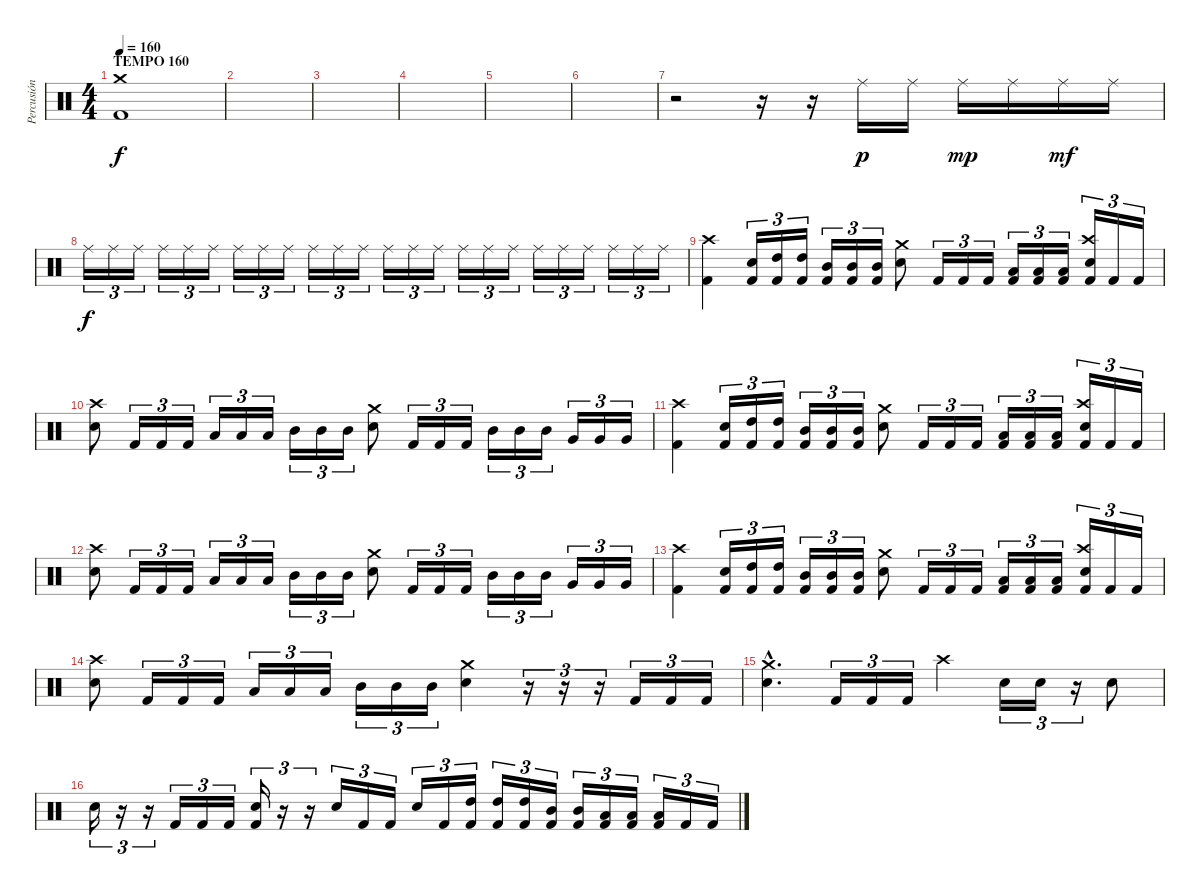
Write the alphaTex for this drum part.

\track ("Percusión" "Percusión") {instrument percussion}
\staff {score}
\articulation defaults
\ts (4 4)
\section ("" "TEMPO 160")
\tempo 160
\clef neutral
\ks c
("Crash medium (hit)" "Kick (hit) 2").1{dy f} |
|
|
|
|
|
r.2 r.16 r.16 "Ride (middle)".16{dy p} "Ride (middle)".16 "Ride (middle)".16{dy mp} "Ride (middle)".16 "Ride (middle)".16{dy mf} "Ride (middle)".16 |
"Ride (middle)".16{tu (3 2) dy f} "Ride (middle)".16{tu (3 2)} "Ride (middle)".16{tu (3 2)} "Ride (middle)".16{tu (3 2)} "Ride (middle)".16{tu (3 2)} "Ride (middle)".16{tu (3 2)} "Ride (middle)".16{tu (3 2)} "Ride (middle)".16{tu (3 2)} "Ride (middle)".16{tu (3 2)} "Ride (middle)".16{tu (3 2)} "Ride (middle)".16{tu (3 2)} "Ride (middle)".16{tu (3 2)} "Ride (middle)".16{tu (3 2)} "Ride (middle)".16{tu (3 2)} "Ride (middle)".16{tu (3 2)} "Ride (middle)".16{tu (3 2)} "Ride (middle)".16{tu (3 2)} "Ride (middle)".16{tu (3 2)} "Ride (middle)".16{tu (3 2)} "Ride (middle)".16{tu (3 2)} "Ride (middle)".16{tu (3 2)} "Ride (middle)".16{tu (3 2)} "Ride (middle)".16{tu (3 2)} "Ride (middle)".16{tu (3 2)} |
("Crash high (hit)" "Kick (hit) 2").4 ("Electric Snare (hit)" "Kick (hit) 2").16{tu (3 2)} ("High Tom (hit)" "Kick (hit) 2").16{tu (3 2)} ("High Tom (hit)" "Kick (hit) 2").16{tu (3 2)} ("Mid Tom (hit)" "Kick (hit) 2").16{tu (3 2)} ("Mid Tom (hit)" "Kick (hit) 2").16{tu (3 2)} ("Mid Tom (hit)" "Kick (hit) 2").16{tu (3 2)} ("Crash medium (hit)" "Electric Snare (hit)").8 "Kick (hit) 2".16{tu (3 2)} "Kick (hit) 2".16{tu (3 2)} "Kick (hit) 2".16{tu (3 2)} ("Low Tom (hit)" "Kick (hit) 2").16{tu (3 2)} ("Low Tom (hit)" "Kick (hit) 2").16{tu (3 2)} ("Low Tom (hit)" "Kick (hit) 2").16{tu (3 2)} ("Crash high (hit)" "Electric Snare (hit)" "Kick (hit) 2").16{tu (3 2)} "Kick (hit) 2".16{tu (3 2)} "Kick (hit) 2".16{tu (3 2)} |
("Crash high (hit)" "Electric Snare (hit)").8 "Kick (hit) 2".16{tu (3 2)} "Kick (hit) 2".16{tu (3 2)} "Kick (hit) 2".16{tu (3 2)} "Low Tom (hit)".16{tu (3 2)} "Low Tom (hit)".16{tu (3 2)} "Low Tom (hit)".16{tu (3 2)} "Mid Tom (hit)".16{tu (3 2)} "Mid Tom (hit)".16{tu (3 2)} "Mid Tom (hit)".16{tu (3 2)} ("Crash medium (hit)" "Electric Snare (hit)").8 "Kick (hit) 2".16{tu (3 2)} "Kick (hit) 2".16{tu (3 2)} "Kick (hit) 2".16{tu (3 2)} "Mid Tom (hit)".16{tu (3 2)} "Mid Tom (hit)".16{tu (3 2)} "Mid Tom (hit)".16{tu (3 2)} "Very Low Tom (hit)".16{tu (3 2)} "Very Low Tom (hit)".16{tu (3 2)} "Very Low Tom (hit)".16{tu (3 2)} |
("Crash high (hit)" "Kick (hit) 2").4 ("Electric Snare (hit)" "Kick (hit) 2").16{tu (3 2)} ("High Tom (hit)" "Kick (hit) 2").16{tu (3 2)} ("High Tom (hit)" "Kick (hit) 2").16{tu (3 2)} ("Mid Tom (hit)" "Kick (hit) 2").16{tu (3 2)} ("Mid Tom (hit)" "Kick (hit) 2").16{tu (3 2)} ("Mid Tom (hit)" "Kick (hit) 2").16{tu (3 2)} ("Crash medium (hit)" "Electric Snare (hit)").8 "Kick (hit) 2".16{tu (3 2)} "Kick (hit) 2".16{tu (3 2)} "Kick (hit) 2".16{tu (3 2)} ("Low Tom (hit)" "Kick (hit) 2").16{tu (3 2)} ("Low Tom (hit)" "Kick (hit) 2").16{tu (3 2)} ("Low Tom (hit)" "Kick (hit) 2").16{tu (3 2)} ("Crash high (hit)" "Electric Snare (hit)" "Kick (hit) 2").16{tu (3 2)} "Kick (hit) 2".16{tu (3 2)} "Kick (hit) 2".16{tu (3 2)} |
("Crash high (hit)" "Electric Snare (hit)").8 "Kick (hit) 2".16{tu (3 2)} "Kick (hit) 2".16{tu (3 2)} "Kick (hit) 2".16{tu (3 2)} "Low Tom (hit)".16{tu (3 2)} "Low Tom (hit)".16{tu (3 2)} "Low Tom (hit)".16{tu (3 2)} "Mid Tom (hit)".16{tu (3 2)} "Mid Tom (hit)".16{tu (3 2)} "Mid Tom (hit)".16{tu (3 2)} ("Crash medium (hit)" "Electric Snare (hit)").8 "Kick (hit) 2".16{tu (3 2)} "Kick (hit) 2".16{tu (3 2)} "Kick (hit) 2".16{tu (3 2)} "Mid Tom (hit)".16{tu (3 2)} "Mid Tom (hit)".16{tu (3 2)} "Mid Tom (hit)".16{tu (3 2)} "Very Low Tom (hit)".16{tu (3 2)} "Very Low Tom (hit)".16{tu (3 2)} "Very Low Tom (hit)".16{tu (3 2)} |
("Crash high (hit)" "Kick (hit) 2").4 ("Electric Snare (hit)" "Kick (hit) 2").16{tu (3 2)} ("High Tom (hit)" "Kick (hit) 2").16{tu (3 2)} ("High Tom (hit)" "Kick (hit) 2").16{tu (3 2)} ("Mid Tom (hit)" "Kick (hit) 2").16{tu (3 2)} ("Mid Tom (hit)" "Kick (hit) 2").16{tu (3 2)} ("Mid Tom (hit)" "Kick (hit) 2").16{tu (3 2)} ("Crash medium (hit)" "Electric Snare (hit)").8 "Kick (hit) 2".16{tu (3 2)} "Kick (hit) 2".16{tu (3 2)} "Kick (hit) 2".16{tu (3 2)} ("Low Tom (hit)" "Kick (hit) 2").16{tu (3 2)} ("Low Tom (hit)" "Kick (hit) 2").16{tu (3 2)} ("Low Tom (hit)" "Kick (hit) 2").16{tu (3 2)} ("Crash high (hit)" "Electric Snare (hit)" "Kick (hit) 2").16{tu (3 2)} "Kick (hit) 2".16{tu (3 2)} "Kick (hit) 2".16{tu (3 2)} |
("Crash high (hit)" "Electric Snare (hit)").8 "Kick (hit) 2".16{tu (3 2)} "Kick (hit) 2".16{tu (3 2)} "Kick (hit) 2".16{tu (3 2)} "Low Tom (hit)".16{tu (3 2)} "Low Tom (hit)".16{tu (3 2)} "Low Tom (hit)".16{tu (3 2)} "Mid Tom (hit)".16{tu (3 2)} "Mid Tom (hit)".16{tu (3 2)} "Mid Tom (hit)".16{tu (3 2)} ("Crash medium (hit)" "Electric Snare (hit)").4 r.16{tu (3 2)} r.16{tu (3 2)} r.16{tu (3 2)} "Kick (hit) 2".16{tu (3 2)} "Kick (hit) 2".16{tu (3 2)} "Kick (hit) 2".16{tu (3 2)} |
("Crash medium (hit)"{hac} "Electric Snare (hit)"{hac}).4{d} "Kick (hit) 2".16{tu (3 2)} "Kick (hit) 2".16{tu (3 2)} "Kick (hit) 2".16{tu (3 2)} "Crash high (hit)".4 "Electric Snare (hit)".16{tu (3 2)} "Electric Snare (hit)".16{tu (3 2)} r.16{tu (3 2)} "Electric Snare (hit)".8 |
"Electric Snare (hit)".16{tu (3 2)} r.16{tu (3 2)} r.16{tu (3 2)} "Kick (hit) 2".16{tu (3 2)} "Kick (hit) 2".16{tu (3 2)} "Kick (hit) 2".16{tu (3 2)} ("Electric Snare (hit)" "Kick (hit) 2").16{tu (3 2)} r.16{tu (3 2)} r.16{tu (3 2)} "Electric Snare (hit)".16{tu (3 2)} "Kick (hit) 2".16{tu (3 2)} "Kick (hit) 2".16{tu (3 2)} "Electric Snare (hit)".16{tu (3 2)} "Kick (hit) 2".16{tu (3 2)} ("High Tom (hit)" "Kick (hit) 2").16{tu (3 2)} ("High Tom (hit)" "Kick (hit) 2").16{tu (3 2)} ("High Tom (hit)" "Kick (hit) 2").16{tu (3 2)} ("Mid Tom (hit)" "Kick (hit) 2").16{tu (3 2)} ("Mid Tom (hit)" "Kick (hit) 2").16{tu (3 2)} ("Low Tom (hit)" "Kick (hit) 2").16{tu (3 2)} ("Low Tom (hit)" "Kick (hit) 2").16{tu (3 2)} ("Low Tom (hit)" "Kick (hit) 2").16{tu (3 2)} "Kick (hit) 2".16{tu (3 2)} "Kick (hit) 2".16{tu (3 2)}
